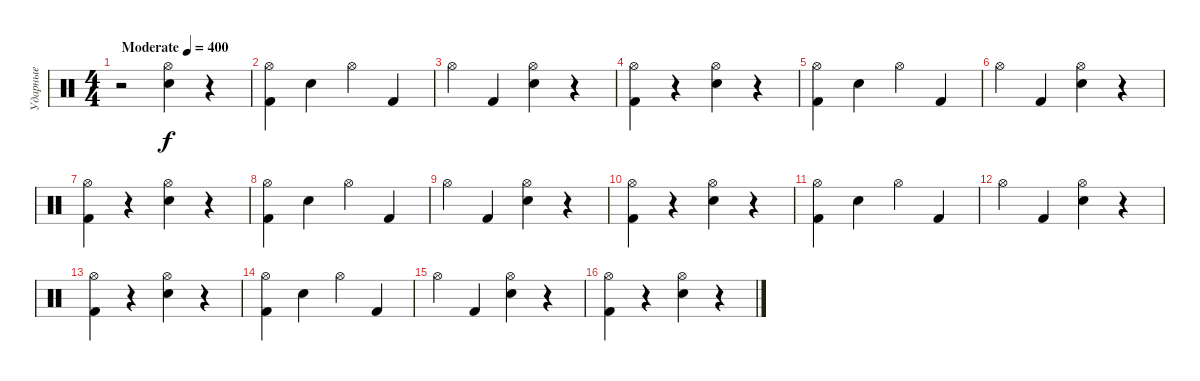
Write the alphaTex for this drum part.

\track ("Ударные" "Ударные") {instrument percussion}
\staff {score}
\articulation defaults
\ts (4 4)
\tempo (400 "Moderate")
\clef neutral
\ks c
r.2{dy f} ("Electric Snare (hit)" "Hi-Hat (open)").4 r.4 |
("Kick (hit) 2" "Hi-Hat (open)").4 "Electric Snare (hit)".4 "Hi-Hat (open)".4 "Kick (hit) 2".4 |
"Hi-Hat (open)".4 "Kick (hit) 2".4 ("Electric Snare (hit)" "Hi-Hat (open)").4 r.4 |
("Kick (hit) 2" "Hi-Hat (open)").4 r.4 ("Electric Snare (hit)" "Hi-Hat (open)").4 r.4 |
("Kick (hit) 2" "Hi-Hat (open)").4 "Electric Snare (hit)".4 "Hi-Hat (open)".4 "Kick (hit) 2".4 |
"Hi-Hat (open)".4 "Kick (hit) 2".4 ("Electric Snare (hit)" "Hi-Hat (open)").4 r.4 |
("Kick (hit) 2" "Hi-Hat (open)").4 r.4 ("Electric Snare (hit)" "Hi-Hat (open)").4 r.4 |
("Kick (hit) 2" "Hi-Hat (open)").4 "Electric Snare (hit)".4 "Hi-Hat (open)".4 "Kick (hit) 2".4 |
"Hi-Hat (open)".4 "Kick (hit) 2".4 ("Electric Snare (hit)" "Hi-Hat (open)").4 r.4 |
("Kick (hit) 2" "Hi-Hat (open)").4 r.4 ("Electric Snare (hit)" "Hi-Hat (open)").4 r.4 |
("Kick (hit) 2" "Hi-Hat (open)").4 "Electric Snare (hit)".4 "Hi-Hat (open)".4 "Kick (hit) 2".4 |
"Hi-Hat (open)".4 "Kick (hit) 2".4 ("Electric Snare (hit)" "Hi-Hat (open)").4 r.4 |
("Kick (hit) 2" "Hi-Hat (open)").4 r.4 ("Electric Snare (hit)" "Hi-Hat (open)").4 r.4 |
("Kick (hit) 2" "Hi-Hat (open)").4 "Electric Snare (hit)".4 "Hi-Hat (open)".4 "Kick (hit) 2".4 |
"Hi-Hat (open)".4 "Kick (hit) 2".4 ("Electric Snare (hit)" "Hi-Hat (open)").4 r.4 |
("Kick (hit) 2" "Hi-Hat (open)").4 r.4 ("Electric Snare (hit)" "Hi-Hat (open)").4 r.4
